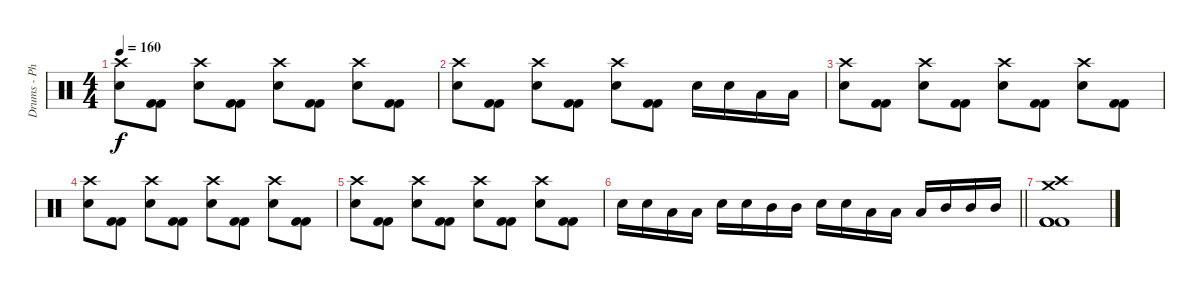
\track ("Drums - Philipp Wirth" "Drums - Ph") {instrument percussion}
\staff {score}
\articulation defaults
\ts (4 4)
\tempo 160
\clef neutral
\ks c
("Crash high (hit)" "Electric Snare (hit)").8{dy f} ("Kick (hit) 2" "Kick (hit) 2").8 ("Crash high (hit)" "Electric Snare (hit)").8 ("Kick (hit) 2" "Kick (hit) 2").8 ("Crash high (hit)" "Electric Snare (hit)").8 ("Kick (hit) 2" "Kick (hit) 2").8 ("Crash high (hit)" "Electric Snare (hit)").8 ("Kick (hit) 2" "Kick (hit) 2").8 |
("Crash high (hit)" "Electric Snare (hit)").8 ("Kick (hit) 2" "Kick (hit) 2").8 ("Crash high (hit)" "Electric Snare (hit)").8 ("Kick (hit) 2" "Kick (hit) 2").8 ("Crash high (hit)" "Electric Snare (hit)").8 ("Kick (hit) 2" "Kick (hit) 2").8 "Electric Snare (hit)".16 "Electric Snare (hit)".16 "Low Tom (hit)".16 "Low Tom (hit)".16 |
("Crash high (hit)" "Electric Snare (hit)").8 ("Kick (hit) 2" "Kick (hit) 2").8 ("Crash high (hit)" "Electric Snare (hit)").8 ("Kick (hit) 2" "Kick (hit) 2").8 ("Crash high (hit)" "Electric Snare (hit)").8 ("Kick (hit) 2" "Kick (hit) 2").8 ("Crash high (hit)" "Electric Snare (hit)").8 ("Kick (hit) 2" "Kick (hit) 2").8 |
("Crash high (hit)" "Electric Snare (hit)").8 ("Kick (hit) 2" "Kick (hit) 2").8 ("Crash high (hit)" "Electric Snare (hit)").8 ("Kick (hit) 2" "Kick (hit) 2").8 ("Crash high (hit)" "Electric Snare (hit)").8 ("Kick (hit) 2" "Kick (hit) 2").8 ("Crash high (hit)" "Electric Snare (hit)").8 ("Kick (hit) 2" "Kick (hit) 2").8 |
("Crash high (hit)" "Electric Snare (hit)").8 ("Kick (hit) 2" "Kick (hit) 2").8 ("Crash high (hit)" "Electric Snare (hit)").8 ("Kick (hit) 2" "Kick (hit) 2").8 ("Crash high (hit)" "Electric Snare (hit)").8 ("Kick (hit) 2" "Kick (hit) 2").8 ("Crash high (hit)" "Electric Snare (hit)").8 ("Kick (hit) 2" "Kick (hit) 2").8 |
\barLineRight lightlight "Electric Snare (hit)".16 "Electric Snare (hit)".16 "Low Tom (hit)".16 "Low Tom (hit)".16 "Electric Snare (hit)".16 "Electric Snare (hit)".16 "Mid Tom (hit)".16 "Mid Tom (hit)".16 "Electric Snare (hit)".16 "Electric Snare (hit)".16 "Low Tom (hit)".16 "Low Tom (hit)".16 "Low Tom (hit)".16 "Mid Tom (hit)".16 "Mid Tom (hit)".16 "Mid Tom (hit)".16
|
("Crash medium (hit)" "Crash high (hit)" "Kick (hit) 2" "Kick (hit) 2" "Kick (hit) 2").1
